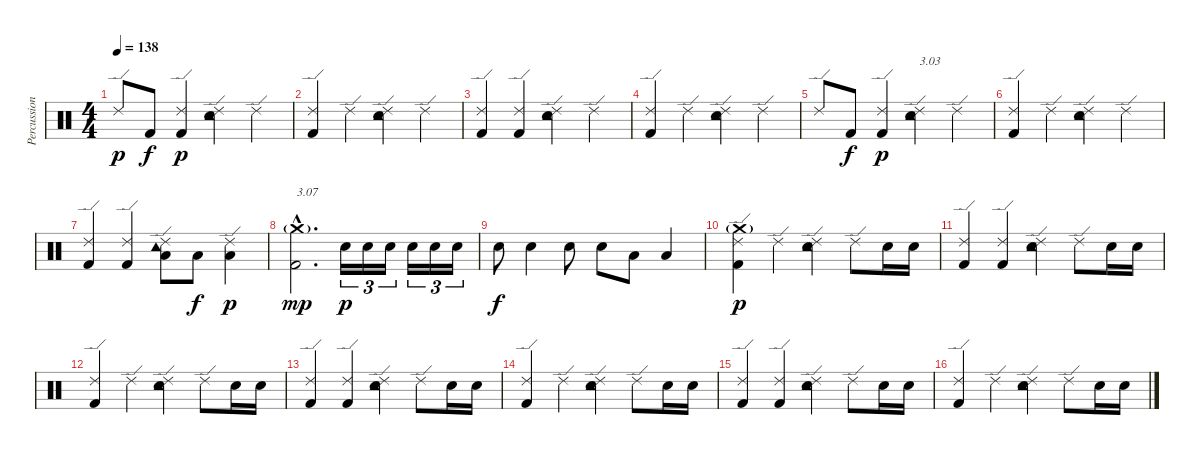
\track ("Percussions" "Percussion") {instrument percussion}
\staff {score}
\articulation defaults
\ts (4 4)
\tempo 138
\clef neutral
\ks c "Ride (edge) 2".8{dy p} "Kick (hit) 2".8{dy f}
("Kick (hit) 2" "Ride (edge) 2").4{dy p} ("Snare (hit) 2" "Tambourine (hit)" "Ride (edge) 2").4 "Ride (edge) 2".4 |
("Kick (hit) 2" "Ride (edge) 2").4 "Ride (edge) 2".4 ("Snare (hit) 2" "Tambourine (hit)" "Ride (edge) 2").4 "Ride (edge) 2".4 |
("Kick (hit) 2" "Ride (edge) 2").4 ("Kick (hit) 2" "Ride (edge) 2").4 ("Snare (hit) 2" "Tambourine (hit)" "Ride (edge) 2").4 "Ride (edge) 2".4 |
("Kick (hit) 2" "Ride (edge) 2").4 "Ride (edge) 2".4 ("Snare (hit) 2" "Tambourine (hit)" "Ride (edge) 2").4 "Ride (edge) 2".4 |
"Ride (edge) 2".8 "Kick (hit) 2".8{dy f} ("Kick (hit) 2" "Ride (edge) 2").4{dy p} ("Snare (hit) 2" "Tambourine (hit)" "Ride (edge) 2").4{txt "3.03"} "Ride (edge) 2".4 |
("Kick (hit) 2" "Ride (edge) 2").4 "Ride (edge) 2".4 ("Snare (hit) 2" "Tambourine (hit)" "Ride (edge) 2").4 "Ride (edge) 2".4 |
("Kick (hit) 2" "Ride (edge) 2").4 ("Kick (hit) 2" "Ride (edge) 2").4 ("Low Floor Tom (hit)" "Tambourine (hit)" "Ride (edge) 2").8 "Low Floor Tom (hit)".8{dy f} ("Low Floor Tom (hit)" "Ride (edge) 2").4{dy p} |
("Kick (hit) 2"{hac} "Crash medium (hit)"{g hac}).2{d txt "3.07" dy mp} "Snare (hit) 2".16{tu (3 2) dy p} "Snare (hit) 2".16{tu (3 2)} "Snare (hit) 2".16{tu (3 2)} "Snare (hit) 2".16{tu (3 2)} "Snare (hit) 2".16{tu (3 2)} "Snare (hit) 2".16{tu (3 2)} |
"Snare (hit) 2".8{dy f} "Snare (hit) 2".4 "Snare (hit) 2".8 "Snare (hit) 2".8 "Low Floor Tom (hit)".8 "Low Floor Tom (hit)".4 |
("Kick (hit) 2" "Crash medium (hit)"{g} "Ride (edge) 2").4{dy p} "Ride (edge) 2".4 ("Snare (hit) 2" "Tambourine (hit)" "Ride (edge) 2").4 "Ride (edge) 2".8 "Snare (hit) 2".16 "Snare (hit) 2".16 |
("Kick (hit) 2" "Ride (edge) 2").4 ("Kick (hit) 2" "Ride (edge) 2").4 ("Snare (hit) 2" "Tambourine (hit)" "Ride (edge) 2").4 "Ride (edge) 2".8 "Snare (hit) 2".16 "Snare (hit) 2".16 |
("Kick (hit) 2" "Ride (edge) 2").4 "Ride (edge) 2".4 ("Snare (hit) 2" "Tambourine (hit)" "Ride (edge) 2").4 "Ride (edge) 2".8 "Snare (hit) 2".16 "Snare (hit) 2".16 |
("Kick (hit) 2" "Ride (edge) 2").4 ("Kick (hit) 2" "Ride (edge) 2").4 ("Snare (hit) 2" "Tambourine (hit)" "Ride (edge) 2").4 "Ride (edge) 2".8 "Snare (hit) 2".16 "Snare (hit) 2".16 |
("Kick (hit) 2" "Ride (edge) 2").4 "Ride (edge) 2".4 ("Snare (hit) 2" "Tambourine (hit)" "Ride (edge) 2").4 "Ride (edge) 2".8 "Snare (hit) 2".16 "Snare (hit) 2".16 |
("Kick (hit) 2" "Ride (edge) 2").4 ("Kick (hit) 2" "Ride (edge) 2").4 ("Snare (hit) 2" "Tambourine (hit)" "Ride (edge) 2").4 "Ride (edge) 2".8 "Snare (hit) 2".16 "Snare (hit) 2".16 |
("Kick (hit) 2" "Ride (edge) 2").4 "Ride (edge) 2".4 ("Snare (hit) 2" "Tambourine (hit)" "Ride (edge) 2").4 "Ride (edge) 2".8 "Snare (hit) 2".16 "Snare (hit) 2".16
